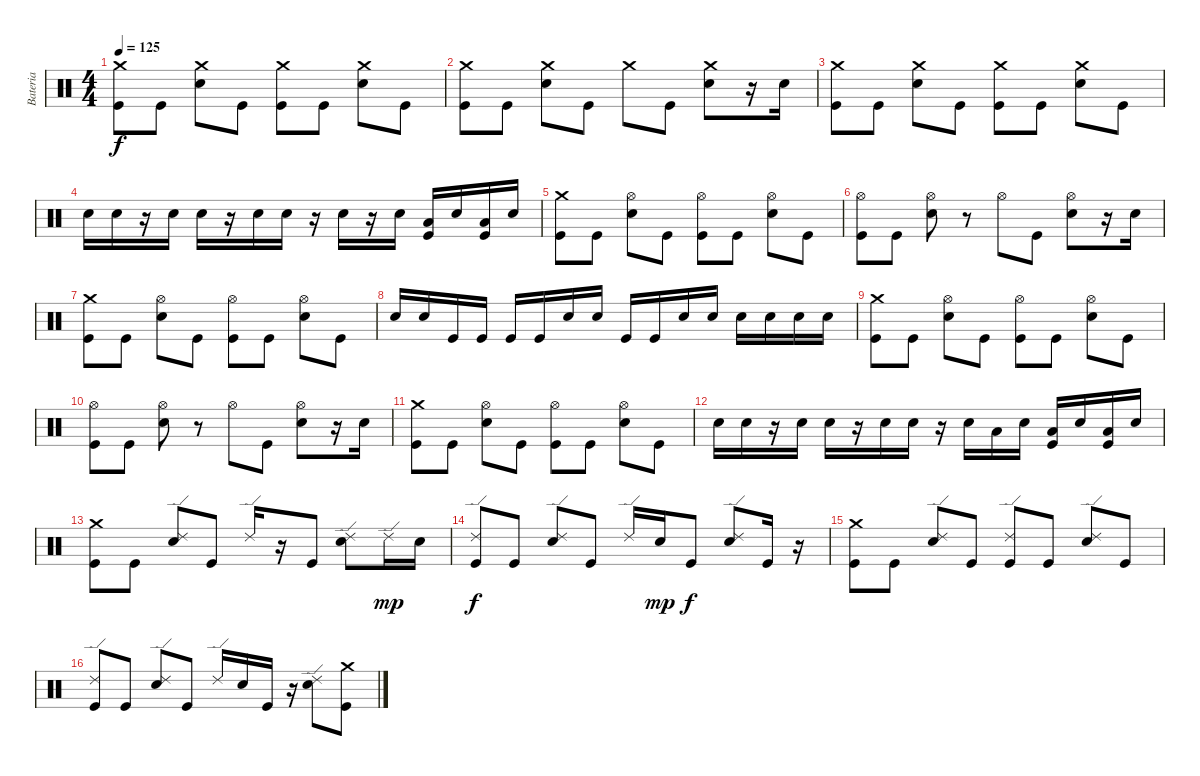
\track ("Bateria" "Bateria") {instrument percussion}
\staff {score}
\articulation defaults
\ts (4 4)
\tempo 125
\clef neutral
\ks c
("Crash medium (hit)" "Kick (hit)").8{dy f} "Kick (hit)".8 ("Crash medium (hit)" "Electric Snare (hit)").8 "Kick (hit)".8 ("Crash medium (hit)" "Kick (hit)").8 "Kick (hit)".8 ("Crash medium (hit)" "Electric Snare (hit)").8 "Kick (hit)".8 |
("Crash medium (hit)" "Kick (hit)").8 "Kick (hit)".8 ("Crash medium (hit)" "Electric Snare (hit)").8 "Kick (hit)".8 "Crash medium (hit)".8 "Kick (hit)".8 ("Crash medium (hit)" "Electric Snare (hit)").8 r.16 "Electric Snare (hit)".16 |
("Crash medium (hit)" "Kick (hit)").8 "Kick (hit)".8 ("Crash medium (hit)" "Electric Snare (hit)").8 "Kick (hit)".8 ("Crash medium (hit)" "Kick (hit)").8 "Kick (hit)".8 ("Crash medium (hit)" "Electric Snare (hit)").8 "Kick (hit)".8 |
"Electric Snare (hit)".16 "Electric Snare (hit)".16 r.16 "Electric Snare (hit)".16 "Electric Snare (hit)".16 r.16 "Electric Snare (hit)".16 "Electric Snare (hit)".16 r.16 "Electric Snare (hit)".16 r.16 "Electric Snare (hit)".16 ("Low Tom (hit)" "Kick (hit)").16 "Electric Snare (hit)".16 ("Low Tom (hit)" "Kick (hit)").16 "Electric Snare (hit)".16 |
("Crash medium (hit)" "Kick (hit)").8 "Kick (hit)".8 ("Hi-Hat (open)" "Electric Snare (hit)").8 "Kick (hit)".8 ("Hi-Hat (open)" "Kick (hit)").8 "Kick (hit)".8 ("Hi-Hat (open)" "Electric Snare (hit)").8 "Kick (hit)".8 |
("Hi-Hat (open)" "Kick (hit)").8 "Kick (hit)".8 ("Hi-Hat (open)" "Electric Snare (hit)").8 r.8 "Hi-Hat (open)".8 "Kick (hit)".8 ("Hi-Hat (open)" "Electric Snare (hit)").8 r.16 "Electric Snare (hit)".16 |
("Crash medium (hit)" "Kick (hit)").8 "Kick (hit)".8 ("Hi-Hat (open)" "Electric Snare (hit)").8 "Kick (hit)".8 ("Hi-Hat (open)" "Kick (hit)").8 "Kick (hit)".8 ("Hi-Hat (open)" "Electric Snare (hit)").8 "Kick (hit)".8 |
"Electric Snare (hit)".16 "Electric Snare (hit)".16 "Kick (hit)".16 "Kick (hit)".16 "Kick (hit)".16 "Kick (hit)".16 "Electric Snare (hit)".16 "Electric Snare (hit)".16 "Kick (hit)".16 "Kick (hit)".16 "Electric Snare (hit)".16 "Electric Snare (hit)".16 "Electric Snare (hit)".16 "Electric Snare (hit)".16 "Electric Snare (hit)".16 "Electric Snare (hit)".16 |
("Crash medium (hit)" "Kick (hit)").8 "Kick (hit)".8 ("Hi-Hat (open)" "Electric Snare (hit)").8 "Kick (hit)".8 ("Hi-Hat (open)" "Kick (hit)").8 "Kick (hit)".8 ("Hi-Hat (open)" "Electric Snare (hit)").8 "Kick (hit)".8 |
("Hi-Hat (open)" "Kick (hit)").8 "Kick (hit)".8 ("Hi-Hat (open)" "Electric Snare (hit)").8 r.8 "Hi-Hat (open)".8 "Kick (hit)".8 ("Hi-Hat (open)" "Electric Snare (hit)").8 r.16 "Electric Snare (hit)".16 |
("Crash medium (hit)" "Kick (hit)").8 "Kick (hit)".8 ("Hi-Hat (open)" "Electric Snare (hit)").8 "Kick (hit)".8 ("Hi-Hat (open)" "Kick (hit)").8 "Kick (hit)".8 ("Hi-Hat (open)" "Electric Snare (hit)").8 "Kick (hit)".8 |
"Electric Snare (hit)".16 "Electric Snare (hit)".16 r.16 "Electric Snare (hit)".16 "Electric Snare (hit)".16 r.16 "Electric Snare (hit)".16 "Electric Snare (hit)".16 r.16 "Electric Snare (hit)".16 "Low Tom (hit)".16 "Electric Snare (hit)".16 ("Low Tom (hit)" "Kick (hit)").16 "Electric Snare (hit)".16 ("Low Tom (hit)" "Kick (hit)").16 "Electric Snare (hit)".16 |
("Crash medium (hit)" "Kick (hit)").8 "Kick (hit)".8 ("Ride (edge) 2" "Electric Snare (hit)").8 "Kick (hit)".8 "Ride (edge) 2".16 r.16 "Kick (hit)".8 ("Ride (edge) 2" "Electric Snare (hit)").8 "Ride (edge) 2".16{dy mp} "Electric Snare (hit)".16 |
("Ride (edge) 2" "Kick (hit)").8{dy f} "Kick (hit)".8 ("Ride (edge) 2" "Electric Snare (hit)").8 "Kick (hit)".8 "Ride (edge) 2".16 "Electric Snare (hit)".16{dy mp} "Kick (hit)".8{dy f} ("Ride (edge) 2" "Electric Snare (hit)").8 "Kick (hit)".16 r.16 |
("Crash medium (hit)" "Kick (hit)").8 "Kick (hit)".8 ("Ride (edge) 2" "Electric Snare (hit)").8 "Kick (hit)".8 ("Ride (edge) 2" "Kick (hit)").8 "Kick (hit)".8 ("Ride (edge) 2" "Electric Snare (hit)").8 "Kick (hit)".8 |
("Ride (edge) 2" "Kick (hit)").8 "Kick (hit)".8 ("Ride (edge) 2" "Electric Snare (hit)").8 "Kick (hit)".8 "Ride (edge) 2".16 "Electric Snare (hit)".16 "Kick (hit)".16 r.16 ("Ride (edge) 2" "Electric Snare (hit)").8 ("Crash medium (hit)" "Kick (hit)").8
